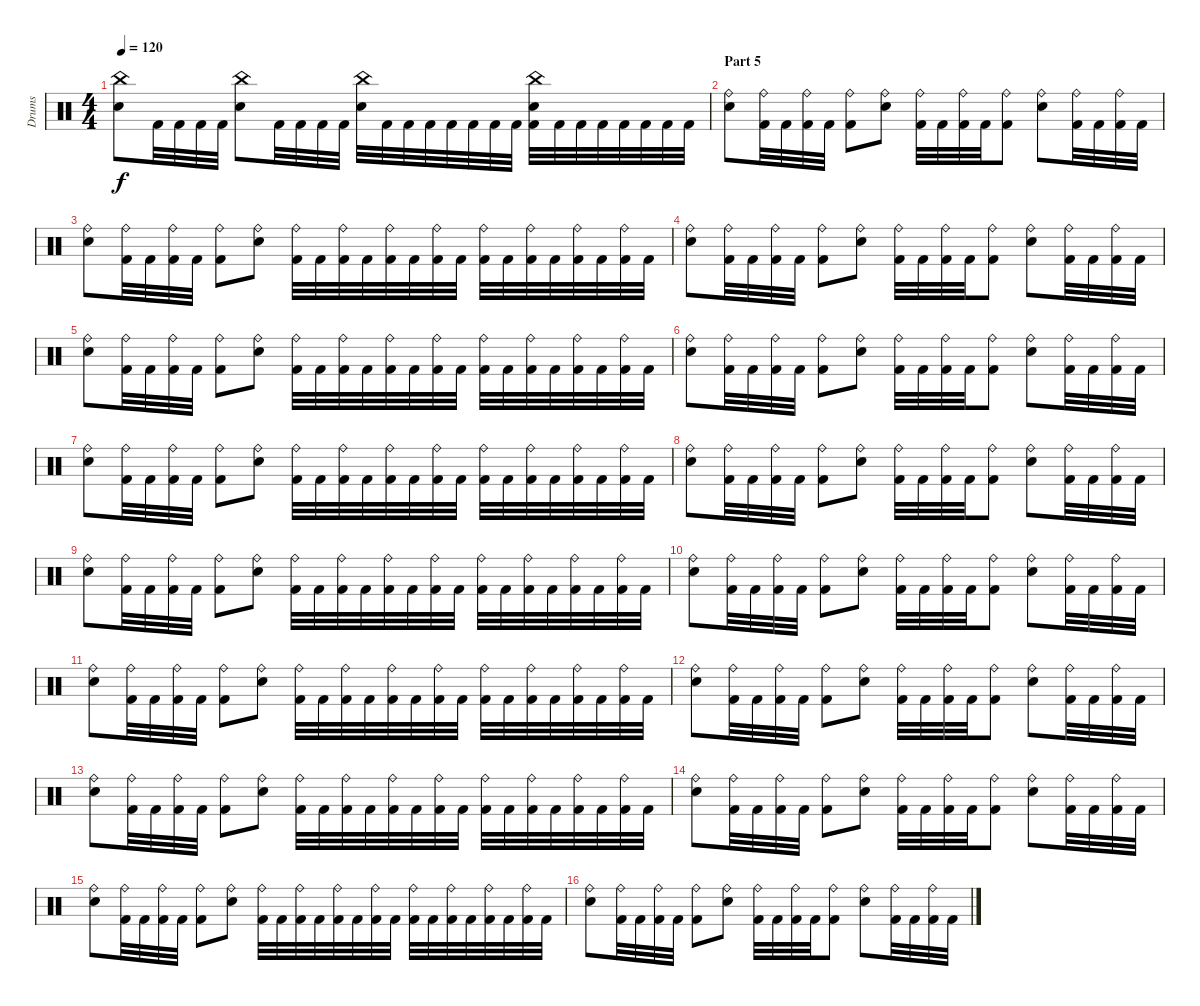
\track ("Drums" "Drums") {instrument percussion}
\staff {score}
\articulation defaults
\ts (4 4)
\tempo 120
\clef neutral
\ks c
("China (hit)" "Electric Snare (hit)").8{dy f} "Kick (hit) 2".32 "Kick (hit) 2".32 "Kick (hit) 2".32 "Kick (hit) 2".32 ("China (hit)" "Electric Snare (hit)").8 "Kick (hit) 2".32 "Kick (hit) 2".32 "Kick (hit) 2".32 "Kick (hit) 2".32 ("China (hit)" "Electric Snare (hit)").32 "Kick (hit) 2".32 "Kick (hit) 2".32 "Kick (hit) 2".32 "Kick (hit) 2".32 "Kick (hit) 2".32 "Kick (hit) 2".32 "Kick (hit) 2".32 ("China (hit)" "Electric Snare (hit)" "Kick (hit) 2").32 "Kick (hit) 2".32 "Kick (hit) 2".32 "Kick (hit) 2".32 "Kick (hit) 2".32 "Kick (hit) 2".32 "Kick (hit) 2".32 "Kick (hit) 2".32 |
\section ("" "Part 5")
("Ride (bell)" "Electric Snare (hit)").8 ("Ride (bell)" "Kick (hit) 2").32 "Kick (hit) 2".32 ("Ride (bell)" "Kick (hit) 2").32 "Kick (hit) 2".32 ("Ride (bell)" "Kick (hit) 2").8 ("Ride (bell)" "Electric Snare (hit)").8 ("Ride (bell)" "Kick (hit) 2").32 "Kick (hit) 2".32 ("Ride (bell)" "Kick (hit) 2").32 "Kick (hit) 2".32 ("Ride (bell)" "Kick (hit) 2").8 ("Ride (bell)" "Electric Snare (hit)").8 ("Ride (bell)" "Kick (hit) 2").32 "Kick (hit) 2".32 ("Ride (bell)" "Kick (hit) 2").32 "Kick (hit) 2".32 |
("Ride (bell)" "Electric Snare (hit)").8 ("Ride (bell)" "Kick (hit) 2").32 "Kick (hit) 2".32 ("Ride (bell)" "Kick (hit) 2").32 "Kick (hit) 2".32 ("Ride (bell)" "Kick (hit) 2").8 ("Ride (bell)" "Electric Snare (hit)").8 ("Ride (bell)" "Kick (hit) 2").32 "Kick (hit) 2".32 ("Ride (bell)" "Kick (hit) 2").32 "Kick (hit) 2".32 ("Ride (bell)" "Kick (hit) 2").32 "Kick (hit) 2".32 ("Ride (bell)" "Kick (hit) 2").32 "Kick (hit) 2".32 ("Ride (bell)" "Kick (hit) 2").32 "Kick (hit) 2".32 ("Ride (bell)" "Kick (hit) 2").32 "Kick (hit) 2".32 ("Ride (bell)" "Kick (hit) 2").32 "Kick (hit) 2".32 ("Ride (bell)" "Kick (hit) 2").32 "Kick (hit) 2".32 |
("Ride (bell)" "Electric Snare (hit)").8 ("Ride (bell)" "Kick (hit) 2").32 "Kick (hit) 2".32 ("Ride (bell)" "Kick (hit) 2").32 "Kick (hit) 2".32 ("Ride (bell)" "Kick (hit) 2").8 ("Ride (bell)" "Electric Snare (hit)").8 ("Ride (bell)" "Kick (hit) 2").32 "Kick (hit) 2".32 ("Ride (bell)" "Kick (hit) 2").32 "Kick (hit) 2".32 ("Ride (bell)" "Kick (hit) 2").8 ("Ride (bell)" "Electric Snare (hit)").8 ("Ride (bell)" "Kick (hit) 2").32 "Kick (hit) 2".32 ("Ride (bell)" "Kick (hit) 2").32 "Kick (hit) 2".32 |
("Ride (bell)" "Electric Snare (hit)").8 ("Ride (bell)" "Kick (hit) 2").32 "Kick (hit) 2".32 ("Ride (bell)" "Kick (hit) 2").32 "Kick (hit) 2".32 ("Ride (bell)" "Kick (hit) 2").8 ("Ride (bell)" "Electric Snare (hit)").8 ("Ride (bell)" "Kick (hit) 2").32 "Kick (hit) 2".32 ("Ride (bell)" "Kick (hit) 2").32 "Kick (hit) 2".32 ("Ride (bell)" "Kick (hit) 2").32 "Kick (hit) 2".32 ("Ride (bell)" "Kick (hit) 2").32 "Kick (hit) 2".32 ("Ride (bell)" "Kick (hit) 2").32 "Kick (hit) 2".32 ("Ride (bell)" "Kick (hit) 2").32 "Kick (hit) 2".32 ("Ride (bell)" "Kick (hit) 2").32 "Kick (hit) 2".32 ("Ride (bell)" "Kick (hit) 2").32 "Kick (hit) 2".32 |
("Ride (bell)" "Electric Snare (hit)").8 ("Ride (bell)" "Kick (hit) 2").32 "Kick (hit) 2".32 ("Ride (bell)" "Kick (hit) 2").32 "Kick (hit) 2".32 ("Ride (bell)" "Kick (hit) 2").8 ("Ride (bell)" "Electric Snare (hit)").8 ("Ride (bell)" "Kick (hit) 2").32 "Kick (hit) 2".32 ("Ride (bell)" "Kick (hit) 2").32 "Kick (hit) 2".32 ("Ride (bell)" "Kick (hit) 2").8 ("Ride (bell)" "Electric Snare (hit)").8 ("Ride (bell)" "Kick (hit) 2").32 "Kick (hit) 2".32 ("Ride (bell)" "Kick (hit) 2").32 "Kick (hit) 2".32 |
("Ride (bell)" "Electric Snare (hit)").8 ("Ride (bell)" "Kick (hit) 2").32 "Kick (hit) 2".32 ("Ride (bell)" "Kick (hit) 2").32 "Kick (hit) 2".32 ("Ride (bell)" "Kick (hit) 2").8 ("Ride (bell)" "Electric Snare (hit)").8 ("Ride (bell)" "Kick (hit) 2").32 "Kick (hit) 2".32 ("Ride (bell)" "Kick (hit) 2").32 "Kick (hit) 2".32 ("Ride (bell)" "Kick (hit) 2").32 "Kick (hit) 2".32 ("Ride (bell)" "Kick (hit) 2").32 "Kick (hit) 2".32 ("Ride (bell)" "Kick (hit) 2").32 "Kick (hit) 2".32 ("Ride (bell)" "Kick (hit) 2").32 "Kick (hit) 2".32 ("Ride (bell)" "Kick (hit) 2").32 "Kick (hit) 2".32 ("Ride (bell)" "Kick (hit) 2").32 "Kick (hit) 2".32 |
("Ride (bell)" "Electric Snare (hit)").8 ("Ride (bell)" "Kick (hit) 2").32 "Kick (hit) 2".32 ("Ride (bell)" "Kick (hit) 2").32 "Kick (hit) 2".32 ("Ride (bell)" "Kick (hit) 2").8 ("Ride (bell)" "Electric Snare (hit)").8 ("Ride (bell)" "Kick (hit) 2").32 "Kick (hit) 2".32 ("Ride (bell)" "Kick (hit) 2").32 "Kick (hit) 2".32 ("Ride (bell)" "Kick (hit) 2").8 ("Ride (bell)" "Electric Snare (hit)").8 ("Ride (bell)" "Kick (hit) 2").32 "Kick (hit) 2".32 ("Ride (bell)" "Kick (hit) 2").32 "Kick (hit) 2".32 |
("Ride (bell)" "Electric Snare (hit)").8 ("Ride (bell)" "Kick (hit) 2").32 "Kick (hit) 2".32 ("Ride (bell)" "Kick (hit) 2").32 "Kick (hit) 2".32 ("Ride (bell)" "Kick (hit) 2").8 ("Ride (bell)" "Electric Snare (hit)").8 ("Ride (bell)" "Kick (hit) 2").32 "Kick (hit) 2".32 ("Ride (bell)" "Kick (hit) 2").32 "Kick (hit) 2".32 ("Ride (bell)" "Kick (hit) 2").32 "Kick (hit) 2".32 ("Ride (bell)" "Kick (hit) 2").32 "Kick (hit) 2".32 ("Ride (bell)" "Kick (hit) 2").32 "Kick (hit) 2".32 ("Ride (bell)" "Kick (hit) 2").32 "Kick (hit) 2".32 ("Ride (bell)" "Kick (hit) 2").32 "Kick (hit) 2".32 ("Ride (bell)" "Kick (hit) 2").32 "Kick (hit) 2".32 |
("Ride (bell)" "Electric Snare (hit)").8 ("Ride (bell)" "Kick (hit) 2").32 "Kick (hit) 2".32 ("Ride (bell)" "Kick (hit) 2").32 "Kick (hit) 2".32 ("Ride (bell)" "Kick (hit) 2").8 ("Ride (bell)" "Electric Snare (hit)").8 ("Ride (bell)" "Kick (hit) 2").32 "Kick (hit) 2".32 ("Ride (bell)" "Kick (hit) 2").32 "Kick (hit) 2".32 ("Ride (bell)" "Kick (hit) 2").8 ("Ride (bell)" "Electric Snare (hit)").8 ("Ride (bell)" "Kick (hit) 2").32 "Kick (hit) 2".32 ("Ride (bell)" "Kick (hit) 2").32 "Kick (hit) 2".32 |
("Ride (bell)" "Electric Snare (hit)").8 ("Ride (bell)" "Kick (hit) 2").32 "Kick (hit) 2".32 ("Ride (bell)" "Kick (hit) 2").32 "Kick (hit) 2".32 ("Ride (bell)" "Kick (hit) 2").8 ("Ride (bell)" "Electric Snare (hit)").8 ("Ride (bell)" "Kick (hit) 2").32 "Kick (hit) 2".32 ("Ride (bell)" "Kick (hit) 2").32 "Kick (hit) 2".32 ("Ride (bell)" "Kick (hit) 2").32 "Kick (hit) 2".32 ("Ride (bell)" "Kick (hit) 2").32 "Kick (hit) 2".32 ("Ride (bell)" "Kick (hit) 2").32 "Kick (hit) 2".32 ("Ride (bell)" "Kick (hit) 2").32 "Kick (hit) 2".32 ("Ride (bell)" "Kick (hit) 2").32 "Kick (hit) 2".32 ("Ride (bell)" "Kick (hit) 2").32 "Kick (hit) 2".32 |
("Ride (bell)" "Electric Snare (hit)").8 ("Ride (bell)" "Kick (hit) 2").32 "Kick (hit) 2".32 ("Ride (bell)" "Kick (hit) 2").32 "Kick (hit) 2".32 ("Ride (bell)" "Kick (hit) 2").8 ("Ride (bell)" "Electric Snare (hit)").8 ("Ride (bell)" "Kick (hit) 2").32 "Kick (hit) 2".32 ("Ride (bell)" "Kick (hit) 2").32 "Kick (hit) 2".32 ("Ride (bell)" "Kick (hit) 2").8 ("Ride (bell)" "Electric Snare (hit)").8 ("Ride (bell)" "Kick (hit) 2").32 "Kick (hit) 2".32 ("Ride (bell)" "Kick (hit) 2").32 "Kick (hit) 2".32 |
("Ride (bell)" "Electric Snare (hit)").8 ("Ride (bell)" "Kick (hit) 2").32 "Kick (hit) 2".32 ("Ride (bell)" "Kick (hit) 2").32 "Kick (hit) 2".32 ("Ride (bell)" "Kick (hit) 2").8 ("Ride (bell)" "Electric Snare (hit)").8 ("Ride (bell)" "Kick (hit) 2").32 "Kick (hit) 2".32 ("Ride (bell)" "Kick (hit) 2").32 "Kick (hit) 2".32 ("Ride (bell)" "Kick (hit) 2").32 "Kick (hit) 2".32 ("Ride (bell)" "Kick (hit) 2").32 "Kick (hit) 2".32 ("Ride (bell)" "Kick (hit) 2").32 "Kick (hit) 2".32 ("Ride (bell)" "Kick (hit) 2").32 "Kick (hit) 2".32 ("Ride (bell)" "Kick (hit) 2").32 "Kick (hit) 2".32 ("Ride (bell)" "Kick (hit) 2").32 "Kick (hit) 2".32 |
("Ride (bell)" "Electric Snare (hit)").8 ("Ride (bell)" "Kick (hit) 2").32 "Kick (hit) 2".32 ("Ride (bell)" "Kick (hit) 2").32 "Kick (hit) 2".32 ("Ride (bell)" "Kick (hit) 2").8 ("Ride (bell)" "Electric Snare (hit)").8 ("Ride (bell)" "Kick (hit) 2").32 "Kick (hit) 2".32 ("Ride (bell)" "Kick (hit) 2").32 "Kick (hit) 2".32 ("Ride (bell)" "Kick (hit) 2").8 ("Ride (bell)" "Electric Snare (hit)").8 ("Ride (bell)" "Kick (hit) 2").32 "Kick (hit) 2".32 ("Ride (bell)" "Kick (hit) 2").32 "Kick (hit) 2".32 |
("Ride (bell)" "Electric Snare (hit)").8 ("Ride (bell)" "Kick (hit) 2").32 "Kick (hit) 2".32 ("Ride (bell)" "Kick (hit) 2").32 "Kick (hit) 2".32 ("Ride (bell)" "Kick (hit) 2").8 ("Ride (bell)" "Electric Snare (hit)").8 ("Ride (bell)" "Kick (hit) 2").32 "Kick (hit) 2".32 ("Ride (bell)" "Kick (hit) 2").32 "Kick (hit) 2".32 ("Ride (bell)" "Kick (hit) 2").32 "Kick (hit) 2".32 ("Ride (bell)" "Kick (hit) 2").32 "Kick (hit) 2".32 ("Ride (bell)" "Kick (hit) 2").32 "Kick (hit) 2".32 ("Ride (bell)" "Kick (hit) 2").32 "Kick (hit) 2".32 ("Ride (bell)" "Kick (hit) 2").32 "Kick (hit) 2".32 ("Ride (bell)" "Kick (hit) 2").32 "Kick (hit) 2".32 |
("Ride (bell)" "Electric Snare (hit)").8 ("Ride (bell)" "Kick (hit) 2").32 "Kick (hit) 2".32 ("Ride (bell)" "Kick (hit) 2").32 "Kick (hit) 2".32 ("Ride (bell)" "Kick (hit) 2").8 ("Ride (bell)" "Electric Snare (hit)").8 ("Ride (bell)" "Kick (hit) 2").32 "Kick (hit) 2".32 ("Ride (bell)" "Kick (hit) 2").32 "Kick (hit) 2".32 ("Ride (bell)" "Kick (hit) 2").8 ("Ride (bell)" "Electric Snare (hit)").8 ("Ride (bell)" "Kick (hit) 2").32 "Kick (hit) 2".32 ("Ride (bell)" "Kick (hit) 2").32 "Kick (hit) 2".32
